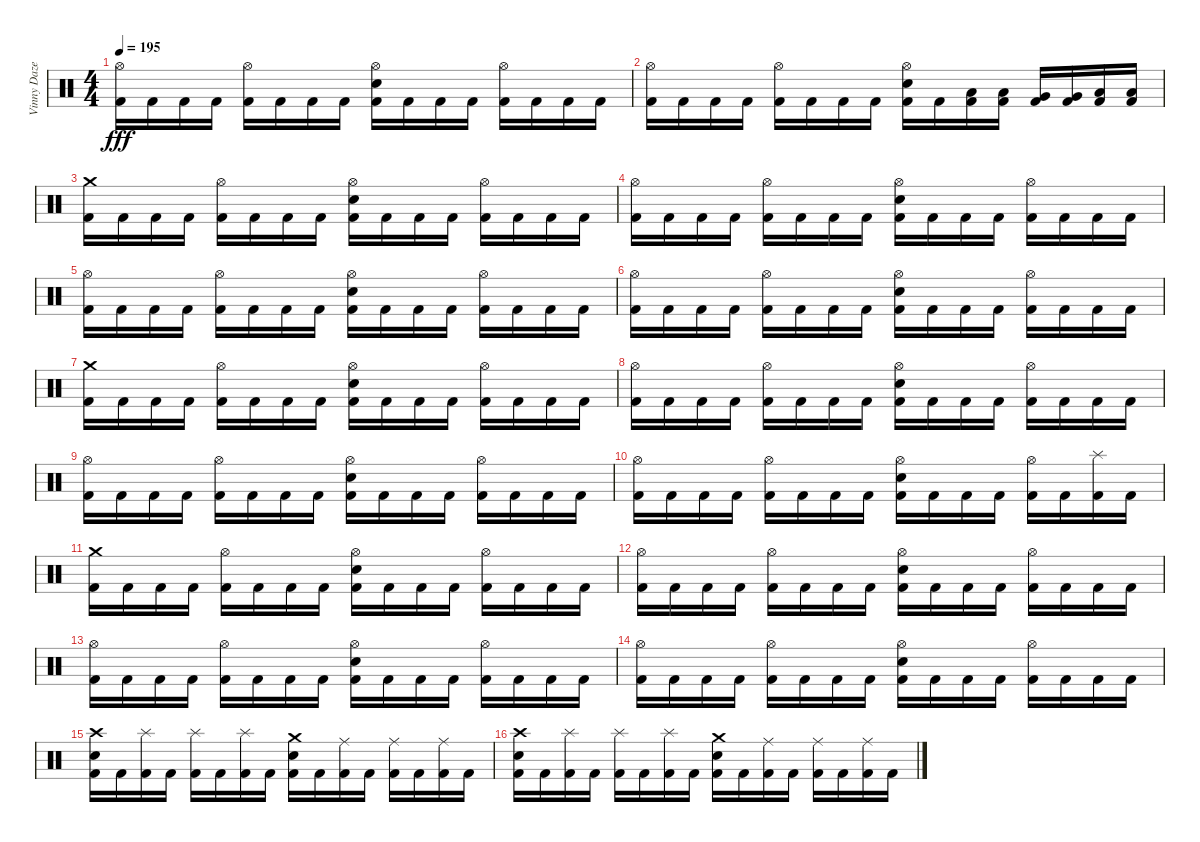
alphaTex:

\track ("Vinny Daze (R.I.P.)" "Vinny Daze") {instrument percussion}
\staff {score}
\articulation defaults
\ts (4 4)
\tempo 195
\clef neutral
\ks c
("Hi-Hat (open)" "Kick (hit) 2").16{dy fff} "Kick (hit) 2".16 "Kick (hit) 2".16 "Kick (hit) 2".16 ("Hi-Hat (open)" "Kick (hit) 2").16 "Kick (hit) 2".16 "Kick (hit) 2".16 "Kick (hit) 2".16 ("Hi-Hat (open)" "Electric Snare (hit)" "Kick (hit) 2").16 "Kick (hit) 2".16 "Kick (hit) 2".16 "Kick (hit) 2".16 ("Hi-Hat (open)" "Kick (hit) 2").16 "Kick (hit) 2".16 "Kick (hit) 2".16 "Kick (hit) 2".16 |
("Hi-Hat (open)" "Kick (hit) 2").16 "Kick (hit) 2".16 "Kick (hit) 2".16 "Kick (hit) 2".16 ("Hi-Hat (open)" "Kick (hit) 2").16 "Kick (hit) 2".16 "Kick (hit) 2".16 "Kick (hit) 2".16 ("Hi-Hat (open)" "Electric Snare (hit)" "Kick (hit) 2").16 "Kick (hit) 2".16 ("Low Tom (hit)" "Kick (hit) 2").16 ("Low Tom (hit)" "Kick (hit) 2").16 ("Very Low Tom (hit)" "Kick (hit) 2").16 ("Very Low Tom (hit)" "Kick (hit) 2").16 ("Low Floor Tom (hit)" "Kick (hit) 2").16 ("Low Floor Tom (hit)" "Kick (hit) 2").16 |
("Crash medium (hit)" "Kick (hit) 2").16 "Kick (hit) 2".16 "Kick (hit) 2".16 "Kick (hit) 2".16 ("Hi-Hat (open)" "Kick (hit) 2").16 "Kick (hit) 2".16 "Kick (hit) 2".16 "Kick (hit) 2".16 ("Hi-Hat (open)" "Electric Snare (hit)" "Kick (hit) 2").16 "Kick (hit) 2".16 "Kick (hit) 2".16 "Kick (hit) 2".16 ("Hi-Hat (open)" "Kick (hit) 2").16 "Kick (hit) 2".16 "Kick (hit) 2".16 "Kick (hit) 2".16 |
("Hi-Hat (open)" "Kick (hit) 2").16 "Kick (hit) 2".16 "Kick (hit) 2".16 "Kick (hit) 2".16 ("Hi-Hat (open)" "Kick (hit) 2").16 "Kick (hit) 2".16 "Kick (hit) 2".16 "Kick (hit) 2".16 ("Hi-Hat (open)" "Electric Snare (hit)" "Kick (hit) 2").16 "Kick (hit) 2".16 "Kick (hit) 2".16 "Kick (hit) 2".16 ("Hi-Hat (open)" "Kick (hit) 2").16 "Kick (hit) 2".16 "Kick (hit) 2".16 "Kick (hit) 2".16 |
("Hi-Hat (open)" "Kick (hit) 2").16 "Kick (hit) 2".16 "Kick (hit) 2".16 "Kick (hit) 2".16 ("Hi-Hat (open)" "Kick (hit) 2").16 "Kick (hit) 2".16 "Kick (hit) 2".16 "Kick (hit) 2".16 ("Hi-Hat (open)" "Electric Snare (hit)" "Kick (hit) 2").16 "Kick (hit) 2".16 "Kick (hit) 2".16 "Kick (hit) 2".16 ("Hi-Hat (open)" "Kick (hit) 2").16 "Kick (hit) 2".16 "Kick (hit) 2".16 "Kick (hit) 2".16 |
("Hi-Hat (open)" "Kick (hit) 2").16 "Kick (hit) 2".16 "Kick (hit) 2".16 "Kick (hit) 2".16 ("Hi-Hat (open)" "Kick (hit) 2").16 "Kick (hit) 2".16 "Kick (hit) 2".16 "Kick (hit) 2".16 ("Hi-Hat (open)" "Electric Snare (hit)" "Kick (hit) 2").16 "Kick (hit) 2".16 "Kick (hit) 2".16 "Kick (hit) 2".16 ("Hi-Hat (open)" "Kick (hit) 2").16 "Kick (hit) 2".16 "Kick (hit) 2".16 "Kick (hit) 2".16 |
("Crash medium (hit)" "Kick (hit) 2").16 "Kick (hit) 2".16 "Kick (hit) 2".16 "Kick (hit) 2".16 ("Hi-Hat (open)" "Kick (hit) 2").16 "Kick (hit) 2".16 "Kick (hit) 2".16 "Kick (hit) 2".16 ("Hi-Hat (open)" "Electric Snare (hit)" "Kick (hit) 2").16 "Kick (hit) 2".16 "Kick (hit) 2".16 "Kick (hit) 2".16 ("Hi-Hat (open)" "Kick (hit) 2").16 "Kick (hit) 2".16 "Kick (hit) 2".16 "Kick (hit) 2".16 |
("Hi-Hat (open)" "Kick (hit) 2").16 "Kick (hit) 2".16 "Kick (hit) 2".16 "Kick (hit) 2".16 ("Hi-Hat (open)" "Kick (hit) 2").16 "Kick (hit) 2".16 "Kick (hit) 2".16 "Kick (hit) 2".16 ("Hi-Hat (open)" "Electric Snare (hit)" "Kick (hit) 2").16 "Kick (hit) 2".16 "Kick (hit) 2".16 "Kick (hit) 2".16 ("Hi-Hat (open)" "Kick (hit) 2").16 "Kick (hit) 2".16 "Kick (hit) 2".16 "Kick (hit) 2".16 |
("Hi-Hat (open)" "Kick (hit) 2").16 "Kick (hit) 2".16 "Kick (hit) 2".16 "Kick (hit) 2".16 ("Hi-Hat (open)" "Kick (hit) 2").16 "Kick (hit) 2".16 "Kick (hit) 2".16 "Kick (hit) 2".16 ("Hi-Hat (open)" "Electric Snare (hit)" "Kick (hit) 2").16 "Kick (hit) 2".16 "Kick (hit) 2".16 "Kick (hit) 2".16 ("Hi-Hat (open)" "Kick (hit) 2").16 "Kick (hit) 2".16 "Kick (hit) 2".16 "Kick (hit) 2".16 |
("Hi-Hat (open)" "Kick (hit) 2").16 "Kick (hit) 2".16 "Kick (hit) 2".16 "Kick (hit) 2".16 ("Hi-Hat (open)" "Kick (hit) 2").16 "Kick (hit) 2".16 "Kick (hit) 2".16 "Kick (hit) 2".16 ("Hi-Hat (open)" "Electric Snare (hit)" "Kick (hit) 2").16 "Kick (hit) 2".16 "Kick (hit) 2".16 "Kick (hit) 2".16 ("Hi-Hat (open)" "Kick (hit) 2").16 "Kick (hit) 2".16 ("Splash (hit)" "Kick (hit) 2").16 "Kick (hit) 2".16 |
("Crash medium (hit)" "Kick (hit) 2").16 "Kick (hit) 2".16 "Kick (hit) 2".16 "Kick (hit) 2".16 ("Hi-Hat (open)" "Kick (hit) 2").16 "Kick (hit) 2".16 "Kick (hit) 2".16 "Kick (hit) 2".16 ("Hi-Hat (open)" "Electric Snare (hit)" "Kick (hit) 2").16 "Kick (hit) 2".16 "Kick (hit) 2".16 "Kick (hit) 2".16 ("Hi-Hat (open)" "Kick (hit) 2").16 "Kick (hit) 2".16 "Kick (hit) 2".16 "Kick (hit) 2".16 |
("Hi-Hat (open)" "Kick (hit) 2").16 "Kick (hit) 2".16 "Kick (hit) 2".16 "Kick (hit) 2".16 ("Hi-Hat (open)" "Kick (hit) 2").16 "Kick (hit) 2".16 "Kick (hit) 2".16 "Kick (hit) 2".16 ("Hi-Hat (open)" "Electric Snare (hit)" "Kick (hit) 2").16 "Kick (hit) 2".16 "Kick (hit) 2".16 "Kick (hit) 2".16 ("Hi-Hat (open)" "Kick (hit) 2").16 "Kick (hit) 2".16 "Kick (hit) 2".16 "Kick (hit) 2".16 |
("Hi-Hat (open)" "Kick (hit) 2").16 "Kick (hit) 2".16 "Kick (hit) 2".16 "Kick (hit) 2".16 ("Hi-Hat (open)" "Kick (hit) 2").16 "Kick (hit) 2".16 "Kick (hit) 2".16 "Kick (hit) 2".16 ("Hi-Hat (open)" "Electric Snare (hit)" "Kick (hit) 2").16 "Kick (hit) 2".16 "Kick (hit) 2".16 "Kick (hit) 2".16 ("Hi-Hat (open)" "Kick (hit) 2").16 "Kick (hit) 2".16 "Kick (hit) 2".16 "Kick (hit) 2".16 |
("Hi-Hat (open)" "Kick (hit) 2").16 "Kick (hit) 2".16 "Kick (hit) 2".16 "Kick (hit) 2".16 ("Hi-Hat (open)" "Kick (hit) 2").16 "Kick (hit) 2".16 "Kick (hit) 2".16 "Kick (hit) 2".16 ("Hi-Hat (open)" "Electric Snare (hit)" "Kick (hit) 2").16 "Kick (hit) 2".16 "Kick (hit) 2".16 "Kick (hit) 2".16 ("Hi-Hat (open)" "Kick (hit) 2").16 "Kick (hit) 2".16 "Kick (hit) 2".16 "Kick (hit) 2".16 |
("Crash high (hit)" "Electric Snare (hit)" "Kick (hit) 2").16 "Kick (hit) 2".16 ("Splash (hit)" "Kick (hit) 2").16 "Kick (hit) 2".16 ("Splash (hit)" "Kick (hit) 2").16 "Kick (hit) 2".16 ("Splash (hit)" "Kick (hit) 2").16 "Kick (hit) 2".16 ("Crash medium (hit)" "Electric Snare (hit)" "Kick (hit) 2").16 "Kick (hit) 2".16 ("Ride (middle)" "Kick (hit) 2").16 "Kick (hit) 2".16 ("Ride (middle)" "Kick (hit) 2").16 "Kick (hit) 2".16 ("Ride (middle)" "Kick (hit) 2").16 "Kick (hit) 2".16 |
("Crash high (hit)" "Electric Snare (hit)" "Kick (hit) 2").16 "Kick (hit) 2".16 ("Splash (hit)" "Kick (hit) 2").16 "Kick (hit) 2".16 ("Splash (hit)" "Kick (hit) 2").16 "Kick (hit) 2".16 ("Splash (hit)" "Kick (hit) 2").16 "Kick (hit) 2".16 ("Crash medium (hit)" "Electric Snare (hit)" "Kick (hit) 2").16 "Kick (hit) 2".16 ("Ride (middle)" "Kick (hit) 2").16 "Kick (hit) 2".16 ("Ride (middle)" "Kick (hit) 2").16 "Kick (hit) 2".16 ("Ride (middle)" "Kick (hit) 2").16 "Kick (hit) 2".16
